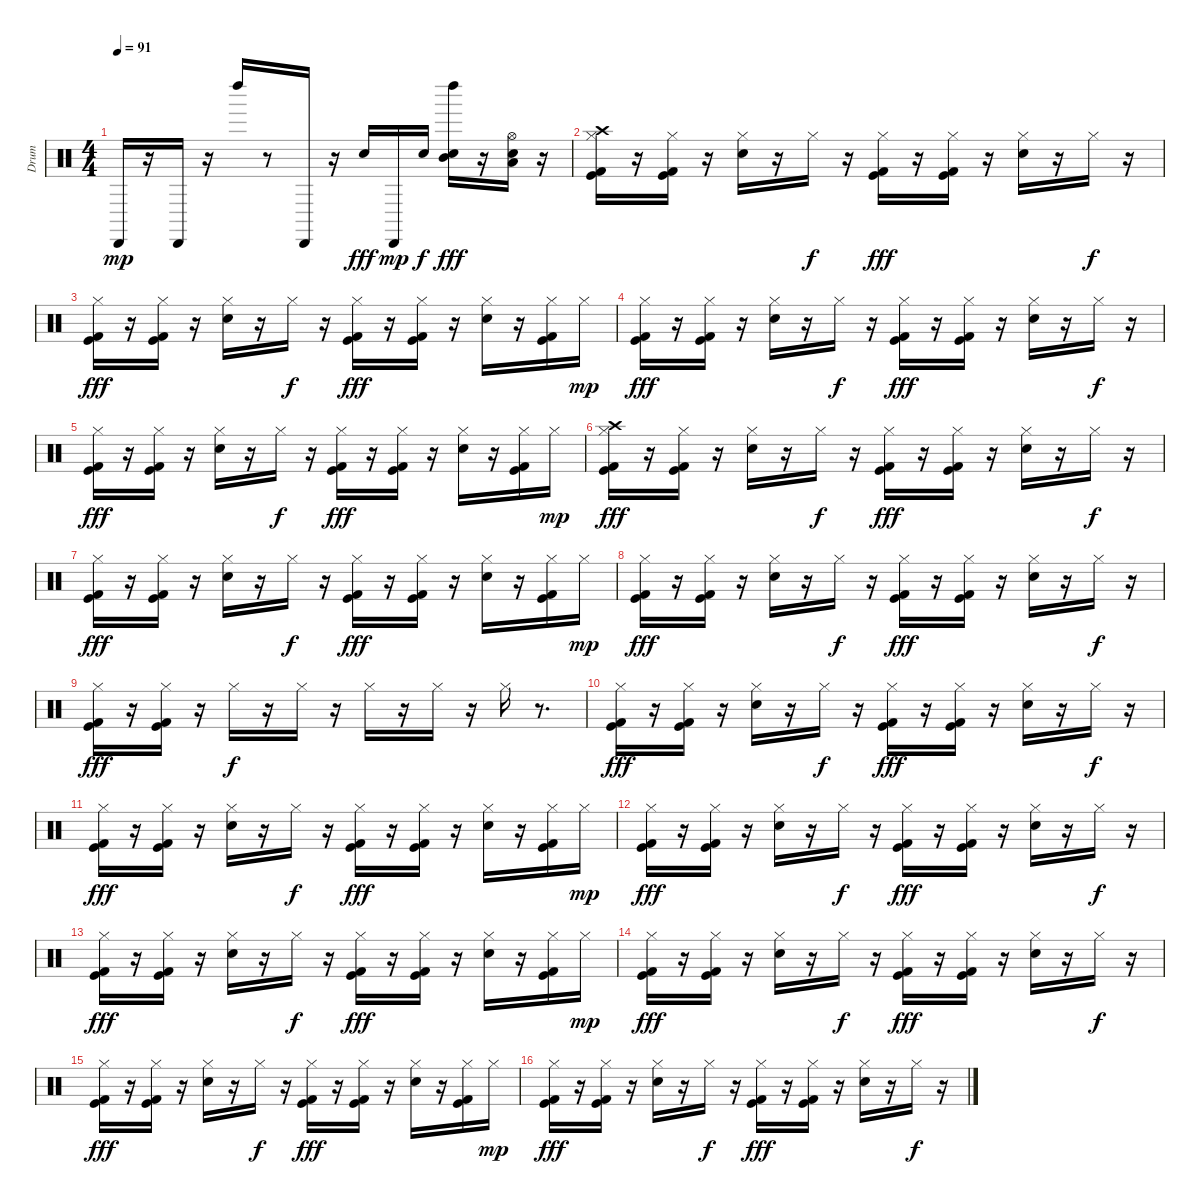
\track ("Drum" "Drum") {instrument percussion}
\staff {score}
\articulation defaults
\ts (4 4)
\tempo 91
\clef neutral
\ks c "Cabasa (hit)".16{dy mp}
r.16 "Cabasa (hit)".16 r.16 "Left Maraca (hit)".16 r.8 "Cabasa (hit)".16 r.16 "Electric Snare (hit)".16{dy fff} "Cabasa (hit)".16{dy mp} "Electric Snare (hit)".16{dy f} ("Left Maraca (hit)" "Electric Snare (hit)" "Mid Tom (hit)").16{dy fff} r.16 ("Electric Snare (hit)" "Low Tom (hit)" "Hi-Hat (open)").16 r.16 |
("Crash high (hit)" "Kick (hit)" "Kick (hit) 2" "Hi-Hat (closed)").16 r.16 ("Kick (hit)" "Kick (hit) 2" "Hi-Hat (closed)").16 r.16 ("Hi-Hat (closed)" "Electric Snare (hit)").16 r.16 "Hi-Hat (closed)".16{dy f} r.16 ("Kick (hit)" "Kick (hit) 2" "Hi-Hat (closed)").16{dy fff} r.16 ("Kick (hit)" "Kick (hit) 2" "Hi-Hat (closed)").16 r.16 ("Hi-Hat (closed)" "Electric Snare (hit)").16 r.16 "Hi-Hat (closed)".16{dy f} r.16 |
("Kick (hit) 2" "Kick (hit)" "Hi-Hat (closed)").16{dy fff} r.16 ("Kick (hit) 2" "Kick (hit)" "Hi-Hat (closed)").16 r.16 ("Hi-Hat (closed)" "Electric Snare (hit)").16 r.16 "Hi-Hat (closed)".16{dy f} r.16 ("Kick (hit)" "Kick (hit) 2" "Hi-Hat (closed)").16{dy fff} r.16 ("Kick (hit)" "Hi-Hat (closed)" "Kick (hit) 2").16 r.16 ("Hi-Hat (closed)" "Electric Snare (hit)").16 r.16 ("Kick (hit)" "Kick (hit) 2" "Hi-Hat (closed)").16 "Hi-Hat (closed)".16{dy mp} |
("Kick (hit)" "Kick (hit) 2" "Hi-Hat (closed)").16{dy fff} r.16 ("Kick (hit)" "Kick (hit) 2" "Hi-Hat (closed)").16 r.16 ("Hi-Hat (closed)" "Electric Snare (hit)").16 r.16 "Hi-Hat (closed)".16{dy f} r.16 ("Kick (hit)" "Kick (hit) 2" "Hi-Hat (closed)").16{dy fff} r.16 ("Kick (hit)" "Kick (hit) 2" "Hi-Hat (closed)").16 r.16 ("Hi-Hat (closed)" "Electric Snare (hit)").16 r.16 "Hi-Hat (closed)".16{dy f} r.16 |
("Kick (hit) 2" "Kick (hit)" "Hi-Hat (closed)").16{dy fff} r.16 ("Kick (hit) 2" "Kick (hit)" "Hi-Hat (closed)").16 r.16 ("Hi-Hat (closed)" "Electric Snare (hit)").16 r.16 "Hi-Hat (closed)".16{dy f} r.16 ("Kick (hit)" "Kick (hit) 2" "Hi-Hat (closed)").16{dy fff} r.16 ("Kick (hit)" "Hi-Hat (closed)" "Kick (hit) 2").16 r.16 ("Hi-Hat (closed)" "Electric Snare (hit)").16 r.16 ("Kick (hit)" "Kick (hit) 2" "Hi-Hat (closed)").16 "Hi-Hat (closed)".16{dy mp} |
("Crash high (hit)" "Kick (hit)" "Kick (hit) 2" "Hi-Hat (closed)").16{dy fff} r.16 ("Kick (hit)" "Kick (hit) 2" "Hi-Hat (closed)").16 r.16 ("Hi-Hat (closed)" "Electric Snare (hit)").16 r.16 "Hi-Hat (closed)".16{dy f} r.16 ("Kick (hit)" "Kick (hit) 2" "Hi-Hat (closed)").16{dy fff} r.16 ("Kick (hit)" "Kick (hit) 2" "Hi-Hat (closed)").16 r.16 ("Hi-Hat (closed)" "Electric Snare (hit)").16 r.16 "Hi-Hat (closed)".16{dy f} r.16 |
("Kick (hit) 2" "Kick (hit)" "Hi-Hat (closed)").16{dy fff} r.16 ("Kick (hit) 2" "Kick (hit)" "Hi-Hat (closed)").16 r.16 ("Hi-Hat (closed)" "Electric Snare (hit)").16 r.16 "Hi-Hat (closed)".16{dy f} r.16 ("Kick (hit)" "Kick (hit) 2" "Hi-Hat (closed)").16{dy fff} r.16 ("Kick (hit)" "Hi-Hat (closed)" "Kick (hit) 2").16 r.16 ("Hi-Hat (closed)" "Electric Snare (hit)").16 r.16 ("Kick (hit)" "Kick (hit) 2" "Hi-Hat (closed)").16 "Hi-Hat (closed)".16{dy mp} |
("Kick (hit)" "Kick (hit) 2" "Hi-Hat (closed)").16{dy fff} r.16 ("Kick (hit)" "Kick (hit) 2" "Hi-Hat (closed)").16 r.16 ("Hi-Hat (closed)" "Electric Snare (hit)").16 r.16 "Hi-Hat (closed)".16{dy f} r.16 ("Kick (hit)" "Kick (hit) 2" "Hi-Hat (closed)").16{dy fff} r.16 ("Kick (hit)" "Kick (hit) 2" "Hi-Hat (closed)").16 r.16 ("Hi-Hat (closed)" "Electric Snare (hit)").16 r.16 "Hi-Hat (closed)".16{dy f} r.16 |
("Kick (hit) 2" "Kick (hit)" "Hi-Hat (closed)").16{dy fff} r.16 ("Kick (hit) 2" "Kick (hit)" "Hi-Hat (closed)").16 r.16 "Hi-Hat (closed)".16{dy f} r.16 "Hi-Hat (closed)".16 r.16 "Hi-Hat (closed)".16 r.16 "Hi-Hat (closed)".16 r.16 "Hi-Hat (closed)".16 r.8{d} |
("Kick (hit)" "Kick (hit) 2" "Hi-Hat (closed)").16{dy fff} r.16 ("Kick (hit)" "Kick (hit) 2" "Hi-Hat (closed)").16 r.16 ("Hi-Hat (closed)" "Electric Snare (hit)").16 r.16 "Hi-Hat (closed)".16{dy f} r.16 ("Kick (hit)" "Kick (hit) 2" "Hi-Hat (closed)").16{dy fff} r.16 ("Kick (hit)" "Kick (hit) 2" "Hi-Hat (closed)").16 r.16 ("Hi-Hat (closed)" "Electric Snare (hit)").16 r.16 "Hi-Hat (closed)".16{dy f} r.16 |
("Kick (hit)" "Kick (hit) 2" "Hi-Hat (closed)").16{dy fff} r.16 ("Kick (hit)" "Kick (hit) 2" "Hi-Hat (closed)").16 r.16 ("Hi-Hat (closed)" "Electric Snare (hit)").16 r.16 "Hi-Hat (closed)".16{dy f} r.16 ("Kick (hit)" "Kick (hit) 2" "Hi-Hat (closed)").16{dy fff} r.16 ("Kick (hit)" "Kick (hit) 2" "Hi-Hat (closed)").16 r.16 ("Hi-Hat (closed)" "Electric Snare (hit)").16 r.16 ("Kick (hit)" "Kick (hit) 2" "Hi-Hat (closed)").16 "Hi-Hat (closed)".16{dy mp} |
("Kick (hit)" "Kick (hit) 2" "Hi-Hat (closed)").16{dy fff} r.16 ("Kick (hit)" "Kick (hit) 2" "Hi-Hat (closed)").16 r.16 ("Hi-Hat (closed)" "Electric Snare (hit)").16 r.16 "Hi-Hat (closed)".16{dy f} r.16 ("Kick (hit)" "Kick (hit) 2" "Hi-Hat (closed)").16{dy fff} r.16 ("Kick (hit)" "Kick (hit) 2" "Hi-Hat (closed)").16 r.16 ("Hi-Hat (closed)" "Electric Snare (hit)").16 r.16 "Hi-Hat (closed)".16{dy f} r.16 |
("Kick (hit)" "Kick (hit) 2" "Hi-Hat (closed)").16{dy fff} r.16 ("Kick (hit)" "Kick (hit) 2" "Hi-Hat (closed)").16 r.16 ("Hi-Hat (closed)" "Electric Snare (hit)").16 r.16 "Hi-Hat (closed)".16{dy f} r.16 ("Kick (hit)" "Kick (hit) 2" "Hi-Hat (closed)").16{dy fff} r.16 ("Kick (hit)" "Kick (hit) 2" "Hi-Hat (closed)").16 r.16 ("Hi-Hat (closed)" "Electric Snare (hit)").16 r.16 ("Kick (hit)" "Kick (hit) 2" "Hi-Hat (closed)").16 "Hi-Hat (closed)".16{dy mp} |
("Kick (hit)" "Kick (hit) 2" "Hi-Hat (closed)").16{dy fff} r.16 ("Kick (hit)" "Kick (hit) 2" "Hi-Hat (closed)").16 r.16 ("Hi-Hat (closed)" "Electric Snare (hit)").16 r.16 "Hi-Hat (closed)".16{dy f} r.16 ("Kick (hit)" "Kick (hit) 2" "Hi-Hat (closed)").16{dy fff} r.16 ("Kick (hit)" "Kick (hit) 2" "Hi-Hat (closed)").16 r.16 ("Hi-Hat (closed)" "Electric Snare (hit)").16 r.16 "Hi-Hat (closed)".16{dy f} r.16 |
("Kick (hit)" "Kick (hit) 2" "Hi-Hat (closed)").16{dy fff} r.16 ("Kick (hit)" "Kick (hit) 2" "Hi-Hat (closed)").16 r.16 ("Hi-Hat (closed)" "Electric Snare (hit)").16 r.16 "Hi-Hat (closed)".16{dy f} r.16 ("Kick (hit)" "Kick (hit) 2" "Hi-Hat (closed)").16{dy fff} r.16 ("Kick (hit)" "Kick (hit) 2" "Hi-Hat (closed)").16 r.16 ("Hi-Hat (closed)" "Electric Snare (hit)").16 r.16 ("Kick (hit)" "Kick (hit) 2" "Hi-Hat (closed)").16 "Hi-Hat (closed)".16{dy mp} |
("Kick (hit)" "Kick (hit) 2" "Hi-Hat (closed)").16{dy fff} r.16 ("Kick (hit)" "Kick (hit) 2" "Hi-Hat (closed)").16 r.16 ("Hi-Hat (closed)" "Electric Snare (hit)").16 r.16 "Hi-Hat (closed)".16{dy f} r.16 ("Kick (hit)" "Kick (hit) 2" "Hi-Hat (closed)").16{dy fff} r.16 ("Kick (hit)" "Kick (hit) 2" "Hi-Hat (closed)").16 r.16 ("Hi-Hat (closed)" "Electric Snare (hit)").16 r.16 "Hi-Hat (closed)".16{dy f} r.16
